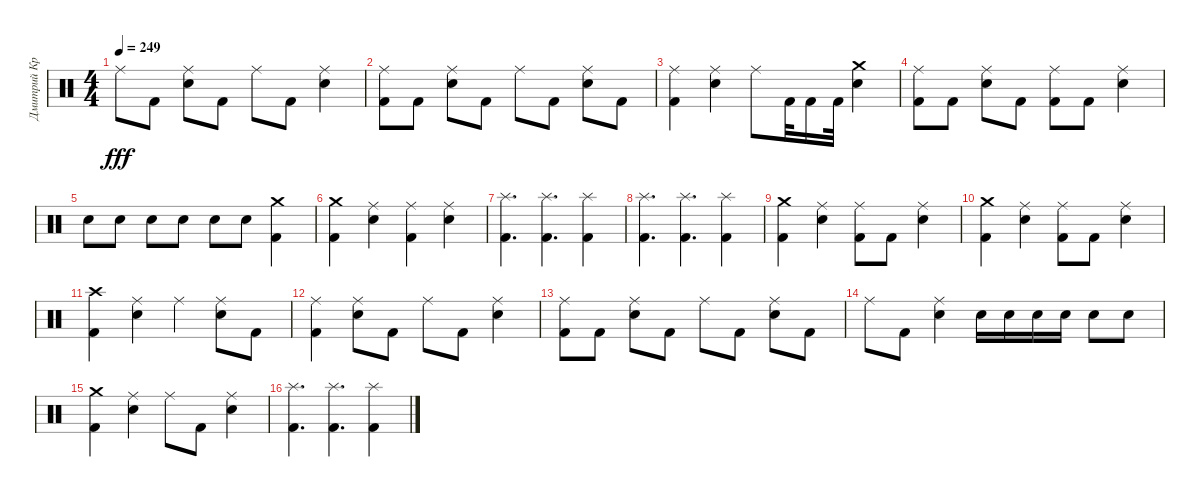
\track ("Дмитрий Кривенков" "Дмитрий Кр") {instrument percussion}
\staff {score}
\articulation defaults
\ts (4 4)
\tempo 249
\clef neutral
\ks c "Ride (middle)".8{dy fff} "Kick (hit) 2".8
("Electric Snare (hit)" "Ride (middle)").8 "Kick (hit) 2".8 "Ride (middle)".8 "Kick (hit) 2".8 ("Electric Snare (hit)" "Ride (middle)").4 |
("Kick (hit) 2" "Ride (middle)").8 "Kick (hit) 2".8 ("Electric Snare (hit)" "Ride (middle)").8 "Kick (hit) 2".8 "Ride (middle)".8 "Kick (hit) 2".8 ("Electric Snare (hit)" "Ride (middle)").8 "Kick (hit) 2".8 |
("Kick (hit) 2" "Ride (middle)").4 ("Electric Snare (hit)" "Ride (middle)").4 "Ride (middle)".8 "Kick (hit) 2".32 "Kick (hit) 2".16 "Kick (hit) 2".32 ("Electric Snare (hit)" "Crash medium (hit)").4 |
("Kick (hit) 2" "Ride (middle)").8 "Kick (hit) 2".8 ("Electric Snare (hit)" "Ride (middle)").8 "Kick (hit) 2".8 ("Kick (hit) 2" "Ride (middle)").8 "Kick (hit) 2".8 ("Electric Snare (hit)" "Ride (middle)").4 |
"Electric Snare (hit)".8 "Electric Snare (hit)".8 "Electric Snare (hit)".8 "Electric Snare (hit)".8 "Electric Snare (hit)".8 "Electric Snare (hit)".8 ("Kick (hit) 2" "Crash medium (hit)").4 |
("Kick (hit) 2" "Crash medium (hit)").4 ("Electric Snare (hit)" "Ride (middle)").4 ("Kick (hit) 2" "Ride (middle)").4 ("Electric Snare (hit)" "Ride (middle)").4 |
("Kick (hit) 2" "Splash (hit)").4{d} ("Kick (hit) 2" "Splash (hit)").4{d} ("Kick (hit) 2" "Splash (hit)").4 |
("Kick (hit) 2" "Splash (hit)").4{d} ("Kick (hit) 2" "Splash (hit)").4{d} ("Kick (hit) 2" "Splash (hit)").4 |
("Kick (hit) 2" "Crash medium (hit)").4 ("Electric Snare (hit)" "Ride (middle)").4 ("Kick (hit) 2" "Ride (middle)").8 "Kick (hit) 2".8 ("Electric Snare (hit)" "Ride (middle)").4 |
("Kick (hit) 2" "Crash medium (hit)").4 ("Electric Snare (hit)" "Ride (middle)").4 ("Kick (hit) 2" "Ride (middle)").8 "Kick (hit) 2".8 ("Electric Snare (hit)" "Ride (middle)").4 |
("Kick (hit) 2" "Crash high (hit)").4 ("Electric Snare (hit)" "Ride (middle)").4 "Ride (middle)".4 ("Electric Snare (hit)" "Ride (middle)").8 "Kick (hit) 2".8 |
("Kick (hit) 2" "Ride (middle)").4 ("Electric Snare (hit)" "Ride (middle)").8 "Kick (hit) 2".8 "Ride (middle)".8 "Kick (hit) 2".8 ("Electric Snare (hit)" "Ride (middle)").4 |
("Kick (hit) 2" "Ride (middle)").8 "Kick (hit) 2".8 ("Electric Snare (hit)" "Ride (middle)").8 "Kick (hit) 2".8 "Ride (middle)".8 "Kick (hit) 2".8 ("Electric Snare (hit)" "Ride (middle)").8 "Kick (hit) 2".8 |
"Ride (middle)".8 "Kick (hit) 2".8 ("Electric Snare (hit)" "Ride (middle)").4 "Electric Snare (hit)".16 "Electric Snare (hit)".16 "Electric Snare (hit)".16 "Electric Snare (hit)".16 "Electric Snare (hit)".8 "Electric Snare (hit)".8 |
("Kick (hit) 2" "Crash medium (hit)").4 ("Electric Snare (hit)" "Ride (middle)").4 "Ride (middle)".8 "Kick (hit) 2".8 ("Electric Snare (hit)" "Ride (middle)").4 |
("Kick (hit) 2" "Splash (hit)").4{d} ("Kick (hit) 2" "Splash (hit)").4{d} ("Kick (hit) 2" "Splash (hit)").4
